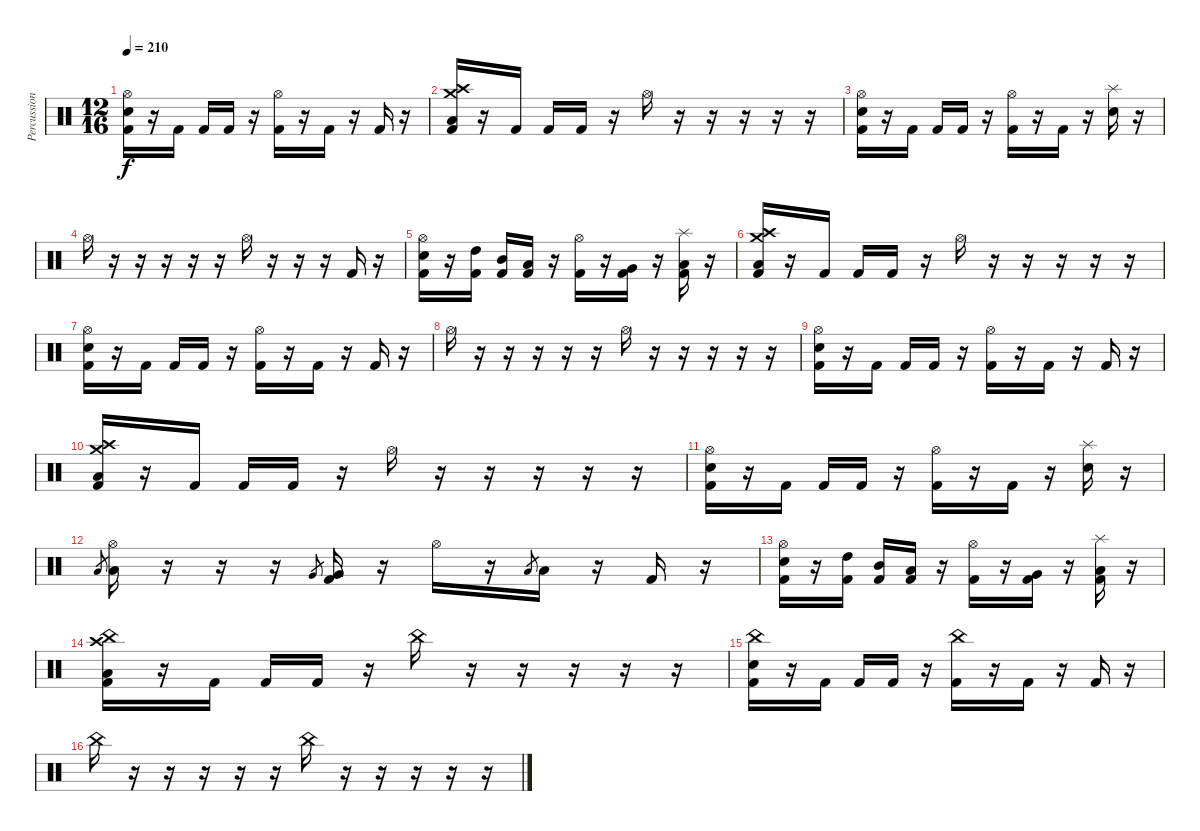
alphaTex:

\track ("Percussion" "Percussion") {instrument percussion}
\staff {score}
\articulation defaults
\ts (12 16)
\tempo 210
\clef neutral
\ks c
("Hi-Hat (open)" "Electric Snare (hit)" "Kick (hit) 2").16{dy f} r.16 "Kick (hit) 2".16 "Kick (hit) 2".16 "Kick (hit) 2".16 r.16 ("Hi-Hat (open)" "Kick (hit) 2").16 r.16 "Kick (hit) 2".16 r.16 "Kick (hit) 2".16 r.16 |
("Crash high (hit)" "Crash medium (hit)" "Low Floor Tom (hit)" "Kick (hit) 2").16 r.16 "Kick (hit) 2".16 "Kick (hit) 2".16 "Kick (hit) 2".16 r.16 "Hi-Hat (open)".16 r.16 r.16 r.16 r.16 r.16 |
("Hi-Hat (open)" "Electric Snare (hit)" "Kick (hit) 2").16 r.16 "Kick (hit) 2".16 "Kick (hit) 2".16 "Kick (hit) 2".16 r.16 ("Hi-Hat (open)" "Kick (hit) 2").16 r.16 "Kick (hit) 2".16 r.16 ("Splash (hit)" "Electric Snare (hit)").16 r.16 |
"Hi-Hat (open)".16 r.16 r.16 r.16 r.16 r.16 "Hi-Hat (open)".16 r.16 r.16 r.16 "Kick (hit) 2".16 r.16 |
("Hi-Hat (open)" "Electric Snare (hit)" "Kick (hit) 2").16 r.16 ("High Tom (hit)" "Kick (hit) 2").16 ("Mid Tom (hit)" "Kick (hit) 2").16 ("Low Tom (hit)" "Kick (hit) 2").16 r.16 ("Hi-Hat (open)" "Kick (hit) 2").16 r.16 ("Very Low Tom (hit)" "Kick (hit) 2").16 r.16 ("Splash (hit)" "Low Floor Tom (hit)" "Kick (hit) 2").16 r.16 |
("Crash high (hit)" "Crash medium (hit)" "Low Floor Tom (hit)" "Kick (hit) 2").16 r.16 "Kick (hit) 2".16 "Kick (hit) 2".16 "Kick (hit) 2".16 r.16 "Hi-Hat (open)".16 r.16 r.16 r.16 r.16 r.16 |
("Hi-Hat (open)" "Electric Snare (hit)" "Kick (hit) 2").16 r.16 "Kick (hit) 2".16 "Kick (hit) 2".16 "Kick (hit) 2".16 r.16 ("Hi-Hat (open)" "Kick (hit) 2").16 r.16 "Kick (hit) 2".16 r.16 "Kick (hit) 2".16 r.16 |
"Hi-Hat (open)".16 r.16 r.16 r.16 r.16 r.16 "Hi-Hat (open)".16 r.16 r.16 r.16 r.16 r.16 |
("Hi-Hat (open)" "Electric Snare (hit)" "Kick (hit) 2").16 r.16 "Kick (hit) 2".16 "Kick (hit) 2".16 "Kick (hit) 2".16 r.16 ("Hi-Hat (open)" "Kick (hit) 2").16 r.16 "Kick (hit) 2".16 r.16 "Kick (hit) 2".16 r.16 |
("Crash high (hit)" "Crash medium (hit)" "Low Floor Tom (hit)" "Kick (hit) 2").16 r.16 "Kick (hit) 2".16 "Kick (hit) 2".16 "Kick (hit) 2".16 r.16 "Hi-Hat (open)".16 r.16 r.16 r.16 r.16 r.16 |
("Hi-Hat (open)" "Electric Snare (hit)" "Kick (hit) 2").16 r.16 "Kick (hit) 2".16 "Kick (hit) 2".16 "Kick (hit) 2".16 r.16 ("Hi-Hat (open)" "Kick (hit) 2").16 r.16 "Kick (hit) 2".16 r.16 ("Splash (hit)" "Electric Snare (hit)").16 r.16 |
"Low Tom (hit)".8{gr} ("Hi-Hat (open)" "Low Tom (hit)").16 r.16 r.16 r.16 "Very Low Tom (hit)".8{gr} ("Very Low Tom (hit)" "Kick (hit) 2").16 r.16 "Hi-Hat (open)".16 r.16 "Low Floor Tom (hit)".8{gr} "Low Floor Tom (hit)".16 r.16 "Kick (hit) 2".16 r.16 |
("Hi-Hat (open)" "Electric Snare (hit)" "Kick (hit) 2").16 r.16 ("High Tom (hit)" "Kick (hit) 2").16 ("Mid Tom (hit)" "Kick (hit) 2").16 ("Low Tom (hit)" "Kick (hit) 2").16 r.16 ("Hi-Hat (open)" "Kick (hit) 2").16 r.16 ("Very Low Tom (hit)" "Kick (hit) 2").16 r.16 ("Splash (hit)" "Low Floor Tom (hit)" "Kick (hit) 2").16 r.16 |
("Crash high (hit)" "China (hit)" "Low Floor Tom (hit)" "Kick (hit) 2").16 r.16 "Kick (hit) 2".16 "Kick (hit) 2".16 "Kick (hit) 2".16 r.16 "China (hit)".16 r.16 r.16 r.16 r.16 r.16 |
("China (hit)" "Electric Snare (hit)" "Kick (hit) 2").16 r.16 "Kick (hit) 2".16 "Kick (hit) 2".16 "Kick (hit) 2".16 r.16 ("China (hit)" "Kick (hit) 2").16 r.16 "Kick (hit) 2".16 r.16 "Kick (hit) 2".16 r.16 |
"China (hit)".16 r.16 r.16 r.16 r.16 r.16 "China (hit)".16 r.16 r.16 r.16 r.16 r.16
